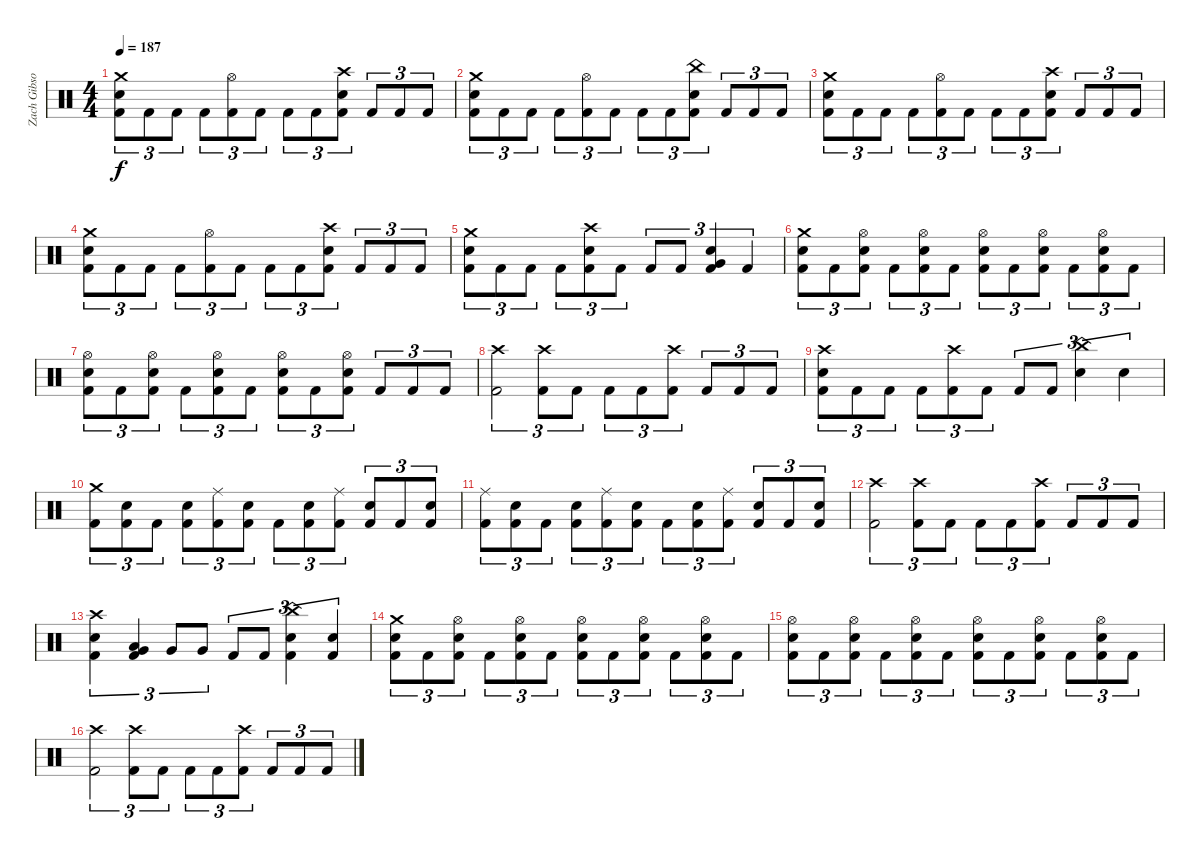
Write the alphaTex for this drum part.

\track ("Zach Gibson (Ex-Drums)" "Zach Gibso") {instrument percussion}
\staff {score}
\articulation defaults
\ts (4 4)
\tempo 187
\clef neutral
\ks c
("Crash medium (hit)" "Snare (hit) 2" "Kick (hit) 2").8{tu (3 2) dy f} "Kick (hit) 2".8{tu (3 2)} "Kick (hit) 2".8{tu (3 2)} "Kick (hit) 2".8{tu (3 2)} ("Hi-Hat (open)" "Kick (hit) 2").8{tu (3 2)} "Kick (hit) 2".8{tu (3 2)} "Kick (hit) 2".8{tu (3 2)} "Kick (hit) 2".8{tu (3 2)} ("Crash high (hit)" "Snare (hit) 2" "Kick (hit) 2").8{tu (3 2)} "Kick (hit) 2".8{tu (3 2)} "Kick (hit) 2".8{tu (3 2)} "Kick (hit) 2".8{tu (3 2)} |
("Crash medium (hit)" "Snare (hit) 2" "Kick (hit) 2").8{tu (3 2)} "Kick (hit) 2".8{tu (3 2)} "Kick (hit) 2".8{tu (3 2)} "Kick (hit) 2".8{tu (3 2)} ("Hi-Hat (open)" "Kick (hit) 2").8{tu (3 2)} "Kick (hit) 2".8{tu (3 2)} "Kick (hit) 2".8{tu (3 2)} "Kick (hit) 2".8{tu (3 2)} ("China (hit)" "Snare (hit) 2" "Kick (hit) 2").8{tu (3 2)} "Kick (hit) 2".8{tu (3 2)} "Kick (hit) 2".8{tu (3 2)} "Kick (hit) 2".8{tu (3 2)} |
("Crash medium (hit)" "Snare (hit) 2" "Kick (hit) 2").8{tu (3 2)} "Kick (hit) 2".8{tu (3 2)} "Kick (hit) 2".8{tu (3 2)} "Kick (hit) 2".8{tu (3 2)} ("Hi-Hat (open)" "Kick (hit) 2").8{tu (3 2)} "Kick (hit) 2".8{tu (3 2)} "Kick (hit) 2".8{tu (3 2)} "Kick (hit) 2".8{tu (3 2)} ("Crash high (hit)" "Snare (hit) 2" "Kick (hit) 2").8{tu (3 2)} "Kick (hit) 2".8{tu (3 2)} "Kick (hit) 2".8{tu (3 2)} "Kick (hit) 2".8{tu (3 2)} |
("Crash medium (hit)" "Snare (hit) 2" "Kick (hit) 2").8{tu (3 2)} "Kick (hit) 2".8{tu (3 2)} "Kick (hit) 2".8{tu (3 2)} "Kick (hit) 2".8{tu (3 2)} ("Hi-Hat (open)" "Kick (hit) 2").8{tu (3 2)} "Kick (hit) 2".8{tu (3 2)} "Kick (hit) 2".8{tu (3 2)} "Kick (hit) 2".8{tu (3 2)} ("Crash high (hit)" "Snare (hit) 2" "Kick (hit) 2").8{tu (3 2)} "Kick (hit) 2".8{tu (3 2)} "Kick (hit) 2".8{tu (3 2)} "Kick (hit) 2".8{tu (3 2)} |
("Crash medium (hit)" "Snare (hit) 2" "Kick (hit) 2").8{tu (3 2)} "Kick (hit) 2".8{tu (3 2)} "Kick (hit) 2".8{tu (3 2)} "Kick (hit) 2".8{tu (3 2)} ("Crash high (hit)" "Snare (hit) 2" "Kick (hit) 2").8{tu (3 2)} "Kick (hit) 2".8{tu (3 2)} "Kick (hit) 2".8{tu (3 2)} "Kick (hit) 2".8{tu (3 2)} ("Very Low Tom (hit)" "Snare (hit) 2" "Kick (hit) 2").4{tu (3 2)} "Kick (hit) 2".4{tu (3 2)} |
("Crash medium (hit)" "Kick (hit) 2" "Snare (hit) 2").8{tu (3 2)} "Kick (hit) 2".8{tu (3 2)} ("Hi-Hat (open)" "Kick (hit) 2" "Snare (hit) 2").8{tu (3 2)} "Kick (hit) 2".8{tu (3 2)} ("Hi-Hat (open)" "Kick (hit) 2" "Snare (hit) 2").8{tu (3 2)} "Kick (hit) 2".8{tu (3 2)} ("Hi-Hat (open)" "Kick (hit) 2" "Snare (hit) 2").8{tu (3 2)} "Kick (hit) 2".8{tu (3 2)} ("Hi-Hat (open)" "Kick (hit) 2" "Snare (hit) 2").8{tu (3 2)} "Kick (hit) 2".8{tu (3 2)} ("Hi-Hat (open)" "Kick (hit) 2" "Snare (hit) 2").8{tu (3 2)} "Kick (hit) 2".8{tu (3 2)} |
("Hi-Hat (open)" "Kick (hit) 2" "Snare (hit) 2").8{tu (3 2)} "Kick (hit) 2".8{tu (3 2)} ("Hi-Hat (open)" "Kick (hit) 2" "Snare (hit) 2").8{tu (3 2)} "Kick (hit) 2".8{tu (3 2)} ("Hi-Hat (open)" "Kick (hit) 2" "Snare (hit) 2").8{tu (3 2)} "Kick (hit) 2".8{tu (3 2)} ("Hi-Hat (open)" "Kick (hit) 2" "Snare (hit) 2").8{tu (3 2)} "Kick (hit) 2".8{tu (3 2)} ("Hi-Hat (open)" "Kick (hit) 2" "Snare (hit) 2").8{tu (3 2)} "Kick (hit) 2".8{tu (3 2)} "Kick (hit) 2".8{tu (3 2)} "Kick (hit) 2".8{tu (3 2)} |
("Crash high (hit)" "Kick (hit) 2").2{tu (3 2)} ("Crash high (hit)" "Kick (hit) 2").8{tu (3 2)} "Kick (hit) 2".8{tu (3 2)} "Kick (hit) 2".8{tu (3 2)} "Kick (hit) 2".8{tu (3 2)} ("Crash high (hit)" "Kick (hit) 2").8{tu (3 2)} "Kick (hit) 2".8{tu (3 2)} "Kick (hit) 2".8{tu (3 2)} "Kick (hit) 2".8{tu (3 2)} |
("Snare (hit) 2" "Crash high (hit)" "Kick (hit) 2").8{tu (3 2)} "Kick (hit) 2".8{tu (3 2)} "Kick (hit) 2".8{tu (3 2)} "Kick (hit) 2".8{tu (3 2)} ("Crash high (hit)" "Kick (hit) 2").8{tu (3 2)} "Kick (hit) 2".8{tu (3 2)} "Kick (hit) 2".8{tu (3 2)} "Kick (hit) 2".8{tu (3 2)} ("China (hit)" "Snare (hit) 2").4{tu (3 2)} "Snare (hit) 2".4{tu (3 2)} |
("Crash medium (hit)" "Kick (hit) 2").8{tu (3 2)} ("Snare (hit) 2" "Kick (hit) 2").8{tu (3 2)} "Kick (hit) 2".8{tu (3 2)} ("Snare (hit) 2" "Kick (hit) 2").8{tu (3 2)} ("Ride (middle)" "Kick (hit) 2").8{tu (3 2)} ("Snare (hit) 2" "Kick (hit) 2").8{tu (3 2)} "Kick (hit) 2".8{tu (3 2)} ("Snare (hit) 2" "Kick (hit) 2").8{tu (3 2)} ("Ride (middle)" "Kick (hit) 2").8{tu (3 2)} ("Snare (hit) 2" "Kick (hit) 2").8{tu (3 2)} "Kick (hit) 2".8{tu (3 2)} ("Snare (hit) 2" "Kick (hit) 2").8{tu (3 2)} |
("Ride (middle)" "Kick (hit) 2").8{tu (3 2)} ("Snare (hit) 2" "Kick (hit) 2").8{tu (3 2)} "Kick (hit) 2".8{tu (3 2)} ("Snare (hit) 2" "Kick (hit) 2").8{tu (3 2)} ("Ride (middle)" "Kick (hit) 2").8{tu (3 2)} ("Snare (hit) 2" "Kick (hit) 2").8{tu (3 2)} "Kick (hit) 2".8{tu (3 2)} ("Snare (hit) 2" "Kick (hit) 2").8{tu (3 2)} ("Ride (middle)" "Kick (hit) 2").8{tu (3 2)} ("Snare (hit) 2" "Kick (hit) 2").8{tu (3 2)} "Kick (hit) 2".8{tu (3 2)} ("Snare (hit) 2" "Kick (hit) 2").8{tu (3 2)} |
("Crash high (hit)" "Kick (hit) 2").2{tu (3 2)} ("Crash high (hit)" "Kick (hit) 2").8{tu (3 2)} "Kick (hit) 2".8{tu (3 2)} "Kick (hit) 2".8{tu (3 2)} "Kick (hit) 2".8{tu (3 2)} ("Crash high (hit)" "Kick (hit) 2").8{tu (3 2)} "Kick (hit) 2".8{tu (3 2)} "Kick (hit) 2".8{tu (3 2)} "Kick (hit) 2".8{tu (3 2)} |
("Snare (hit) 2" "Crash high (hit)" "Kick (hit) 2").4{tu (3 2)} ("Kick (hit) 2" "Low Floor Tom (hit)" "Very Low Tom (hit)").4{tu (3 2)} "Very Low Tom (hit)".8{tu (3 2)} "Very Low Tom (hit)".8{tu (3 2)} "Kick (hit) 2".8{tu (3 2)} "Kick (hit) 2".8{tu (3 2)} ("China (hit)" "Snare (hit) 2" "Kick (hit) 2").4{tu (3 2)} ("Snare (hit) 2" "Kick (hit) 2").4{tu (3 2)} |
("Crash medium (hit)" "Kick (hit) 2" "Snare (hit) 2").8{tu (3 2)} "Kick (hit) 2".8{tu (3 2)} ("Hi-Hat (open)" "Kick (hit) 2" "Snare (hit) 2").8{tu (3 2)} "Kick (hit) 2".8{tu (3 2)} ("Hi-Hat (open)" "Kick (hit) 2" "Snare (hit) 2").8{tu (3 2)} "Kick (hit) 2".8{tu (3 2)} ("Hi-Hat (open)" "Kick (hit) 2" "Snare (hit) 2").8{tu (3 2)} "Kick (hit) 2".8{tu (3 2)} ("Hi-Hat (open)" "Kick (hit) 2" "Snare (hit) 2").8{tu (3 2)} "Kick (hit) 2".8{tu (3 2)} ("Hi-Hat (open)" "Kick (hit) 2" "Snare (hit) 2").8{tu (3 2)} "Kick (hit) 2".8{tu (3 2)} |
("Hi-Hat (open)" "Kick (hit) 2" "Snare (hit) 2").8{tu (3 2)} "Kick (hit) 2".8{tu (3 2)} ("Hi-Hat (open)" "Kick (hit) 2" "Snare (hit) 2").8{tu (3 2)} "Kick (hit) 2".8{tu (3 2)} ("Hi-Hat (open)" "Kick (hit) 2" "Snare (hit) 2").8{tu (3 2)} "Kick (hit) 2".8{tu (3 2)} ("Hi-Hat (open)" "Kick (hit) 2" "Snare (hit) 2").8{tu (3 2)} "Kick (hit) 2".8{tu (3 2)} ("Hi-Hat (open)" "Kick (hit) 2" "Snare (hit) 2").8{tu (3 2)} "Kick (hit) 2".8{tu (3 2)} ("Hi-Hat (open)" "Snare (hit) 2" "Kick (hit) 2").8{tu (3 2)} "Kick (hit) 2".8{tu (3 2)} |
("Crash high (hit)" "Kick (hit) 2").2{tu (3 2)} ("Crash high (hit)" "Kick (hit) 2").8{tu (3 2)} "Kick (hit) 2".8{tu (3 2)} "Kick (hit) 2".8{tu (3 2)} "Kick (hit) 2".8{tu (3 2)} ("Crash high (hit)" "Kick (hit) 2").8{tu (3 2)} "Kick (hit) 2".8{tu (3 2)} "Kick (hit) 2".8{tu (3 2)} "Kick (hit) 2".8{tu (3 2)}
